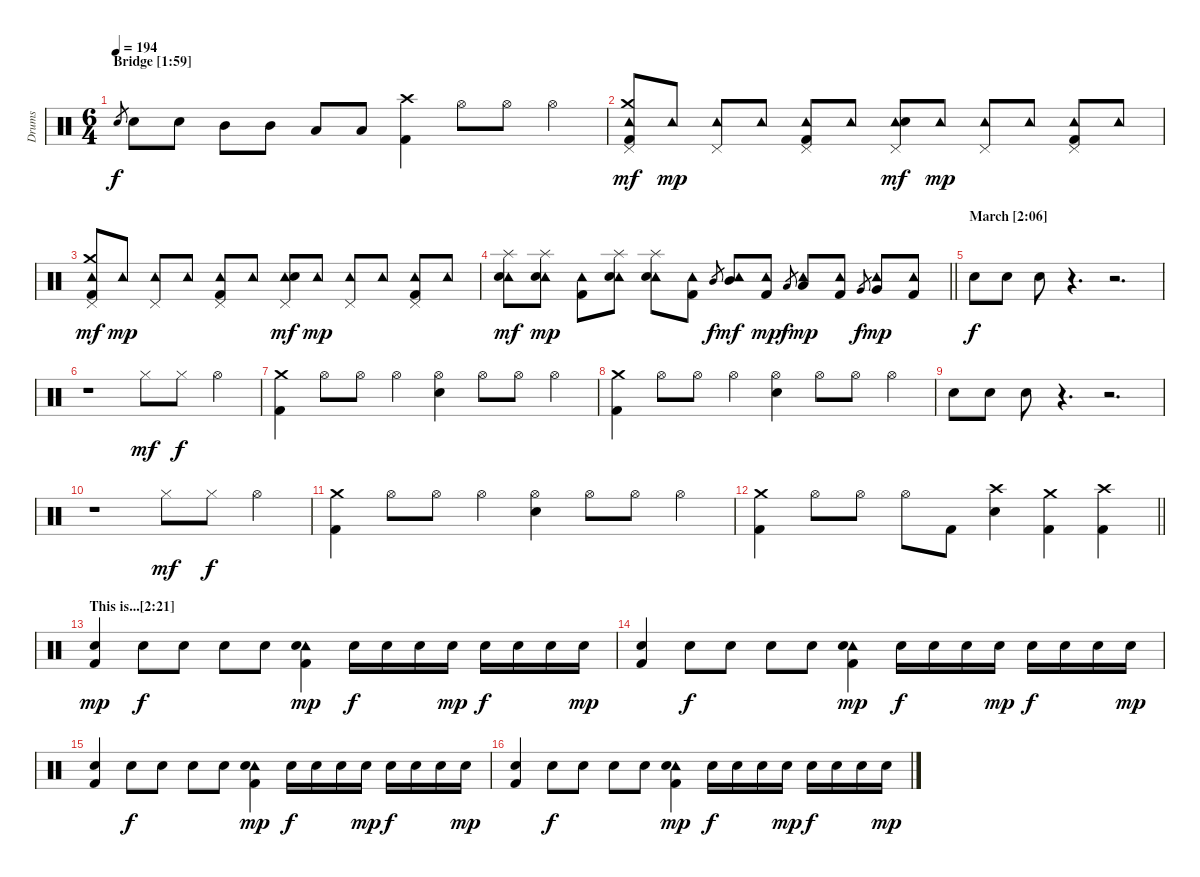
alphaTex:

\track ("Drums" "Drums") {instrument percussion}
\staff {score}
\articulation defaults
\ts (6 4)
\section ("" "Bridge [1:59]")
\tempo 194
\clef neutral
\ks c "Electric Snare (hit)".8{gr dy f} "Electric Snare (hit)".8 "Electric Snare (hit)".8 "Mid Tom (hit)".8 "Mid Tom (hit)".8 "Low Tom (hit)".8 "Low Tom (hit)".8
("Crash high (hit)" "Kick (hit) 2").4 "Hi-Hat (open)".8 "Hi-Hat (open)".8 "Hi-Hat (open)".4 |
("Crash medium (hit)" "Tambourine (hit)" "Pedal Hi-Hat (hit)" "Kick (hit) 2").8{dy mf} "Tambourine (hit)".8{dy mp} ("Tambourine (hit)" "Pedal Hi-Hat (hit)").8 "Tambourine (hit)".8 ("Tambourine (hit)" "Pedal Hi-Hat (hit)" "Kick (hit) 2").8 "Tambourine (hit)".8 ("Tambourine (hit)" "Pedal Hi-Hat (hit)" "Electric Snare (hit)").8{dy mf} "Tambourine (hit)".8{dy mp} ("Tambourine (hit)" "Pedal Hi-Hat (hit)").8 "Tambourine (hit)".8 ("Tambourine (hit)" "Pedal Hi-Hat (hit)" "Kick (hit) 2").8 "Tambourine (hit)".8 |
("Crash medium (hit)" "Tambourine (hit)" "Pedal Hi-Hat (hit)" "Kick (hit) 2").8{dy mf} "Tambourine (hit)".8{dy mp} ("Tambourine (hit)" "Pedal Hi-Hat (hit)").8 "Tambourine (hit)".8 ("Tambourine (hit)" "Pedal Hi-Hat (hit)" "Kick (hit) 2").8 "Tambourine (hit)".8 ("Tambourine (hit)" "Pedal Hi-Hat (hit)" "Electric Snare (hit)").8{dy mf} "Tambourine (hit)".8{dy mp} ("Tambourine (hit)" "Pedal Hi-Hat (hit)").8 "Tambourine (hit)".8 ("Tambourine (hit)" "Pedal Hi-Hat (hit)" "Kick (hit) 2").8 "Tambourine (hit)".8 |
\barLineRight lightlight
("Splash (hit)" "Tambourine (hit)" "Electric Snare (hit)").8{dy mf} ("Splash (hit)" "Tambourine (hit)" "Electric Snare (hit)").8{dy mp} ("Tambourine (hit)" "Kick (hit) 2").8 ("Splash (hit)" "Tambourine (hit)" "Electric Snare (hit)").8 ("Splash (hit)" "Tambourine (hit)" "Electric Snare (hit)").8 ("Tambourine (hit)" "Kick (hit) 2").8 "Mid Tom (hit)".8{gr dy f} ("Tambourine (hit)" "Mid Tom (hit)").8{dy mf} ("Tambourine (hit)" "Kick (hit) 2").8{dy mp} "Low Tom (hit)".8{gr dy f} ("Tambourine (hit)" "Low Tom (hit)").8{dy mp} ("Tambourine (hit)" "Kick (hit) 2").8 "Very Low Tom (hit)".8{gr dy f} ("Tambourine (hit)" "Very Low Tom (hit)").8{dy mp} ("Tambourine (hit)" "Kick (hit) 2").8 |
\section ("" "March [2:06]")
"Electric Snare (hit)".8{dy f} "Electric Snare (hit)".8 "Electric Snare (hit)".8 r.4{d} r.2{d} |
r.1 "Hi-Hat (closed)".8{dy mf} "Hi-Hat (closed)".8{dy f} "Hi-Hat (open)".4 |
("Crash medium (hit)" "Kick (hit) 2").4 "Hi-Hat (open)".8 "Hi-Hat (open)".8 "Hi-Hat (open)".4 ("Hi-Hat (open)" "Electric Snare (hit)").4 "Hi-Hat (open)".8 "Hi-Hat (open)".8 "Hi-Hat (open)".4 |
("Crash medium (hit)" "Kick (hit) 2").4 "Hi-Hat (open)".8 "Hi-Hat (open)".8 "Hi-Hat (open)".4 ("Hi-Hat (open)" "Electric Snare (hit)").4 "Hi-Hat (open)".8 "Hi-Hat (open)".8 "Hi-Hat (open)".4 |
"Electric Snare (hit)".8 "Electric Snare (hit)".8 "Electric Snare (hit)".8 r.4{d} r.2{d} |
r.1 "Hi-Hat (closed)".8{dy mf} "Hi-Hat (closed)".8{dy f} "Hi-Hat (open)".4 |
("Crash medium (hit)" "Kick (hit) 2").4 "Hi-Hat (open)".8 "Hi-Hat (open)".8 "Hi-Hat (open)".4 ("Hi-Hat (open)" "Electric Snare (hit)").4 "Hi-Hat (open)".8 "Hi-Hat (open)".8 "Hi-Hat (open)".4 |
\barLineRight lightlight
("Crash medium (hit)" "Kick (hit) 2").4 "Hi-Hat (open)".8 "Hi-Hat (open)".8 "Hi-Hat (open)".8 "Kick (hit) 2".8 ("Crash high (hit)" "Electric Snare (hit)").4 ("Crash medium (hit)" "Kick (hit) 2").4 ("Crash high (hit)" "Kick (hit) 2").4 |
\section ("" "This is...[2:21]")
("Electric Snare (hit)" "Kick (hit) 2").4{dy mp} "Electric Snare (hit)".8{dy f} "Electric Snare (hit)".8 "Electric Snare (hit)".8 "Electric Snare (hit)".8 ("Tambourine (hit)" "Electric Snare (hit)" "Kick (hit) 2").4{dy mp} "Electric Snare (hit)".16{dy f} "Electric Snare (hit)".16 "Electric Snare (hit)".16 "Electric Snare (hit)".16{dy mp} "Electric Snare (hit)".16{dy f} "Electric Snare (hit)".16 "Electric Snare (hit)".16 "Electric Snare (hit)".16{dy mp} |
("Electric Snare (hit)" "Kick (hit) 2").4 "Electric Snare (hit)".8{dy f} "Electric Snare (hit)".8 "Electric Snare (hit)".8 "Electric Snare (hit)".8 ("Tambourine (hit)" "Electric Snare (hit)" "Kick (hit) 2").4{dy mp} "Electric Snare (hit)".16{dy f} "Electric Snare (hit)".16 "Electric Snare (hit)".16 "Electric Snare (hit)".16{dy mp} "Electric Snare (hit)".16{dy f} "Electric Snare (hit)".16 "Electric Snare (hit)".16 "Electric Snare (hit)".16{dy mp} |
("Electric Snare (hit)" "Kick (hit) 2").4 "Electric Snare (hit)".8{dy f} "Electric Snare (hit)".8 "Electric Snare (hit)".8 "Electric Snare (hit)".8 ("Tambourine (hit)" "Electric Snare (hit)" "Kick (hit) 2").4{dy mp} "Electric Snare (hit)".16{dy f} "Electric Snare (hit)".16 "Electric Snare (hit)".16 "Electric Snare (hit)".16{dy mp} "Electric Snare (hit)".16{dy f} "Electric Snare (hit)".16 "Electric Snare (hit)".16 "Electric Snare (hit)".16{dy mp} |
("Electric Snare (hit)" "Kick (hit) 2").4 "Electric Snare (hit)".8{dy f} "Electric Snare (hit)".8 "Electric Snare (hit)".8 "Electric Snare (hit)".8 ("Tambourine (hit)" "Electric Snare (hit)" "Kick (hit) 2").4{dy mp} "Electric Snare (hit)".16{dy f} "Electric Snare (hit)".16 "Electric Snare (hit)".16 "Electric Snare (hit)".16{dy mp} "Electric Snare (hit)".16{dy f} "Electric Snare (hit)".16 "Electric Snare (hit)".16 "Electric Snare (hit)".16{dy mp}
